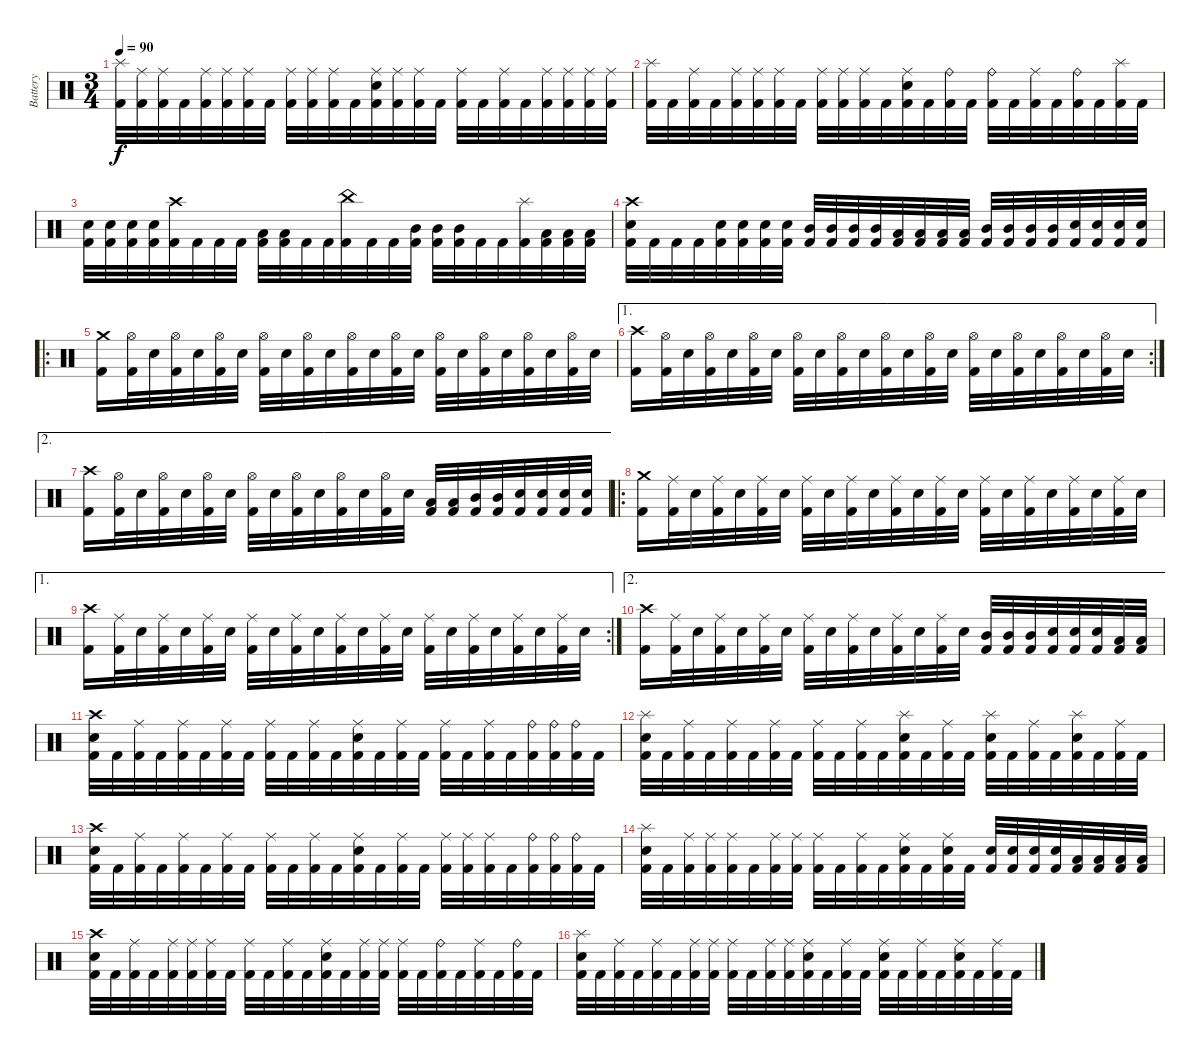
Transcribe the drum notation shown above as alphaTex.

\track ("Battery" "Battery") {instrument percussion}
\staff {score}
\articulation defaults
\ts (3 4)
\tempo 90
\clef neutral
\ks c
("Kick (hit) 2" "Splash (hit)").32{dy f} ("Kick (hit) 2" "Ride (middle)").32 ("Kick (hit) 2" "Ride (middle)").32 "Kick (hit) 2".32 ("Kick (hit) 2" "Ride (middle)").32 ("Kick (hit) 2" "Ride (middle)").32 ("Kick (hit) 2" "Ride (middle)").32 "Kick (hit) 2".32 ("Kick (hit) 2" "Ride (middle)").32 ("Kick (hit) 2" "Ride (middle)").32 ("Kick (hit) 2" "Ride (middle)").32 "Kick (hit) 2".32 ("Kick (hit) 2" "Snare (hit) 2" "Ride (middle)").32 ("Kick (hit) 2" "Ride (middle)").32 ("Kick (hit) 2" "Ride (middle)").32 "Kick (hit) 2".32 ("Kick (hit) 2" "Ride (middle)").32 "Kick (hit) 2".32 ("Kick (hit) 2" "Ride (middle)").32 "Kick (hit) 2".32 ("Kick (hit) 2" "Ride (middle)").32 ("Kick (hit) 2" "Ride (middle)").32 ("Kick (hit) 2" "Ride (middle)").32 ("Kick (hit) 2" "Ride (middle)").32 |
("Kick (hit) 2" "Splash (hit)").32 "Kick (hit) 2".32 ("Kick (hit) 2" "Ride (middle)").32 "Kick (hit) 2".32 ("Kick (hit) 2" "Ride (middle)").32 ("Kick (hit) 2" "Ride (middle)").32 ("Kick (hit) 2" "Ride (middle)").32 "Kick (hit) 2".32 ("Kick (hit) 2" "Ride (middle)").32 ("Kick (hit) 2" "Ride (middle)").32 ("Kick (hit) 2" "Ride (middle)").32 "Kick (hit) 2".32 ("Kick (hit) 2" "Snare (hit) 2" "Ride (middle)").32 "Kick (hit) 2".32 ("Kick (hit) 2" "Ride (bell)").32 "Kick (hit) 2".32 ("Kick (hit) 2" "Ride (bell)").32 "Kick (hit) 2".32 ("Kick (hit) 2" "Ride (middle)").32 "Kick (hit) 2".32 ("Kick (hit) 2" "Ride (bell)").32 "Kick (hit) 2".32 ("Kick (hit) 2" "Splash (hit)").32 "Kick (hit) 2".32 |
("Kick (hit) 2" "Snare (hit) 2").32 ("Kick (hit) 2" "Snare (hit) 2").32 ("Kick (hit) 2" "Snare (hit) 2").32 ("Kick (hit) 2" "Snare (hit) 2").32 ("Kick (hit) 2" "Crash high (hit)").32 "Kick (hit) 2".32 "Kick (hit) 2".32 "Kick (hit) 2".32 ("Kick (hit) 2" "Low Tom (hit)").32 ("Kick (hit) 2" "Low Tom (hit)").32 "Kick (hit) 2".32 "Kick (hit) 2".32 ("Kick (hit) 2" "China (hit)").32 "Kick (hit) 2".32 "Kick (hit) 2".32 ("Kick (hit) 2" "Mid Tom (hit)").32 ("Kick (hit) 2" "Mid Tom (hit)").32 ("Kick (hit) 2" "Mid Tom (hit)").32 "Kick (hit) 2".32 "Kick (hit) 2".32 ("Kick (hit) 2" "Splash (hit)").32 ("Kick (hit) 2" "Low Tom (hit)").32 ("Kick (hit) 2" "Low Tom (hit)").32 ("Kick (hit) 2" "Low Tom (hit)").32 |
("Kick (hit) 2" "Snare (hit) 2" "Crash high (hit)").32 "Kick (hit) 2".32 "Kick (hit) 2".32 "Kick (hit) 2".32 ("Kick (hit) 2" "Snare (hit) 2").32 ("Kick (hit) 2" "Snare (hit) 2").32 ("Kick (hit) 2" "Snare (hit) 2").32 ("Kick (hit) 2" "Snare (hit) 2").32 ("Kick (hit) 2" "Mid Tom (hit)").32 ("Kick (hit) 2" "Mid Tom (hit)").32 ("Kick (hit) 2" "Mid Tom (hit)").32 ("Kick (hit) 2" "Mid Tom (hit)").32 ("Kick (hit) 2" "Low Tom (hit)").32 ("Kick (hit) 2" "Low Tom (hit)").32 ("Kick (hit) 2" "Low Tom (hit)").32 ("Kick (hit) 2" "Low Tom (hit)").32 ("Kick (hit) 2" "Mid Tom (hit)").32 ("Kick (hit) 2" "Mid Tom (hit)").32 ("Kick (hit) 2" "Mid Tom (hit)").32 ("Kick (hit) 2" "Mid Tom (hit)").32 ("Kick (hit) 2" "Snare (hit) 2").32 ("Kick (hit) 2" "Snare (hit) 2").32 ("Kick (hit) 2" "Snare (hit) 2").32 ("Kick (hit) 2" "Snare (hit) 2").32 |
\ro
("Kick (hit) 2" "Crash medium (hit)").16 ("Kick (hit) 2" "Hi-Hat (open)").32 "Snare (hit) 2".32 ("Kick (hit) 2" "Hi-Hat (open)").32 "Snare (hit) 2".32 ("Kick (hit) 2" "Hi-Hat (open)").32 "Snare (hit) 2".32 ("Kick (hit) 2" "Hi-Hat (open)").32 "Snare (hit) 2".32 ("Kick (hit) 2" "Hi-Hat (open)").32 "Snare (hit) 2".32 ("Kick (hit) 2" "Hi-Hat (open)").32 "Snare (hit) 2".32 ("Kick (hit) 2" "Hi-Hat (open)").32 "Snare (hit) 2".32 ("Kick (hit) 2" "Hi-Hat (open)").32 "Snare (hit) 2".32 ("Kick (hit) 2" "Hi-Hat (open)").32 "Snare (hit) 2".32 ("Kick (hit) 2" "Hi-Hat (open)").32 "Snare (hit) 2".32 ("Kick (hit) 2" "Hi-Hat (open)").32 "Snare (hit) 2".32 |
\ae 1
\rc 2
("Kick (hit) 2" "Crash high (hit)").16 ("Kick (hit) 2" "Hi-Hat (open)").32 "Snare (hit) 2".32 ("Kick (hit) 2" "Hi-Hat (open)").32 "Snare (hit) 2".32 ("Kick (hit) 2" "Hi-Hat (open)").32 "Snare (hit) 2".32 ("Kick (hit) 2" "Hi-Hat (open)").32 "Snare (hit) 2".32 ("Kick (hit) 2" "Hi-Hat (open)").32 "Snare (hit) 2".32 ("Kick (hit) 2" "Hi-Hat (open)").32 "Snare (hit) 2".32 ("Kick (hit) 2" "Hi-Hat (open)").32 "Snare (hit) 2".32 ("Kick (hit) 2" "Hi-Hat (open)").32 "Snare (hit) 2".32 ("Kick (hit) 2" "Hi-Hat (open)").32 "Snare (hit) 2".32 ("Kick (hit) 2" "Hi-Hat (open)").32 "Snare (hit) 2".32 ("Kick (hit) 2" "Hi-Hat (open)").32 "Snare (hit) 2".32 |
\ae 2
("Kick (hit) 2" "Crash high (hit)").16 ("Kick (hit) 2" "Hi-Hat (open)").32 "Snare (hit) 2".32 ("Kick (hit) 2" "Hi-Hat (open)").32 "Snare (hit) 2".32 ("Kick (hit) 2" "Hi-Hat (open)").32 "Snare (hit) 2".32 ("Kick (hit) 2" "Hi-Hat (open)").32 "Snare (hit) 2".32 ("Kick (hit) 2" "Hi-Hat (open)").32 "Snare (hit) 2".32 ("Kick (hit) 2" "Hi-Hat (open)").32 "Snare (hit) 2".32 ("Kick (hit) 2" "Hi-Hat (open)").32 "Snare (hit) 2".32 ("Kick (hit) 2" "Low Tom (hit)").32 ("Kick (hit) 2" "Low Tom (hit)").32 ("Kick (hit) 2" "Mid Tom (hit)").32 ("Kick (hit) 2" "Mid Tom (hit)").32 ("Kick (hit) 2" "Snare (hit) 2").32 ("Kick (hit) 2" "Snare (hit) 2").32 ("Kick (hit) 2" "Snare (hit) 2").32 ("Kick (hit) 2" "Snare (hit) 2").32 |
\ro
("Kick (hit) 2" "Crash medium (hit)").16 ("Kick (hit) 2" "Ride (middle)").32 "Snare (hit) 2".32 ("Kick (hit) 2" "Ride (middle)").32 "Snare (hit) 2".32 ("Kick (hit) 2" "Ride (middle)").32 "Snare (hit) 2".32 ("Kick (hit) 2" "Ride (middle)").32 "Snare (hit) 2".32 ("Kick (hit) 2" "Ride (middle)").32 "Snare (hit) 2".32 ("Kick (hit) 2" "Ride (middle)").32 "Snare (hit) 2".32 ("Kick (hit) 2" "Ride (middle)").32 "Snare (hit) 2".32 ("Kick (hit) 2" "Ride (middle)").32 "Snare (hit) 2".32 ("Kick (hit) 2" "Ride (middle)").32 "Snare (hit) 2".32 ("Kick (hit) 2" "Ride (middle)").32 "Snare (hit) 2".32 ("Kick (hit) 2" "Ride (middle)").32 "Snare (hit) 2".32 |
\ae 1
\rc 2
("Kick (hit) 2" "Crash high (hit)").16 ("Kick (hit) 2" "Ride (middle)").32 "Snare (hit) 2".32 ("Kick (hit) 2" "Ride (middle)").32 "Snare (hit) 2".32 ("Kick (hit) 2" "Ride (middle)").32 "Snare (hit) 2".32 ("Kick (hit) 2" "Ride (middle)").32 "Snare (hit) 2".32 ("Kick (hit) 2" "Ride (middle)").32 "Snare (hit) 2".32 ("Kick (hit) 2" "Ride (middle)").32 "Snare (hit) 2".32 ("Kick (hit) 2" "Ride (middle)").32 "Snare (hit) 2".32 ("Kick (hit) 2" "Ride (middle)").32 "Snare (hit) 2".32 ("Kick (hit) 2" "Ride (middle)").32 "Snare (hit) 2".32 ("Kick (hit) 2" "Ride (middle)").32 "Snare (hit) 2".32 ("Kick (hit) 2" "Ride (middle)").32 "Snare (hit) 2".32 |
\ae 2
("Kick (hit) 2" "Crash high (hit)").16 ("Kick (hit) 2" "Ride (middle)").32 "Snare (hit) 2".32 ("Kick (hit) 2" "Ride (middle)").32 "Snare (hit) 2".32 ("Kick (hit) 2" "Ride (middle)").32 "Snare (hit) 2".32 ("Kick (hit) 2" "Ride (middle)").32 "Snare (hit) 2".32 ("Kick (hit) 2" "Ride (middle)").32 "Snare (hit) 2".32 ("Kick (hit) 2" "Ride (middle)").32 "Snare (hit) 2".32 ("Kick (hit) 2" "Ride (middle)").32 "Snare (hit) 2".32 ("Kick (hit) 2" "Mid Tom (hit)").32 ("Kick (hit) 2" "Mid Tom (hit)").32 ("Kick (hit) 2" "Mid Tom (hit)").32 ("Kick (hit) 2" "Snare (hit) 2").32 ("Kick (hit) 2" "Snare (hit) 2").32 ("Kick (hit) 2" "Snare (hit) 2").32 ("Kick (hit) 2" "Low Tom (hit)").32 ("Kick (hit) 2" "Low Tom (hit)").32 |
("Kick (hit) 2" "Snare (hit) 2" "Crash high (hit)").32 "Kick (hit) 2".32 ("Kick (hit) 2" "Ride (middle)").32 "Kick (hit) 2".32 ("Kick (hit) 2" "Ride (middle)").32 "Kick (hit) 2".32 ("Kick (hit) 2" "Ride (middle)").32 "Kick (hit) 2".32 ("Kick (hit) 2" "Ride (middle)").32 "Kick (hit) 2".32 ("Kick (hit) 2" "Ride (middle)").32 "Kick (hit) 2".32 ("Kick (hit) 2" "Snare (hit) 2" "Ride (middle)").32 "Kick (hit) 2".32 ("Kick (hit) 2" "Ride (middle)").32 "Kick (hit) 2".32 ("Kick (hit) 2" "Ride (middle)").32 "Kick (hit) 2".32 ("Kick (hit) 2" "Ride (middle)").32 "Kick (hit) 2".32 ("Kick (hit) 2" "Ride (bell)").32 ("Kick (hit) 2" "Ride (bell)").32 ("Kick (hit) 2" "Ride (bell)").32 "Kick (hit) 2".32 |
("Kick (hit) 2" "Snare (hit) 2" "Splash (hit)").32 "Kick (hit) 2".32 ("Kick (hit) 2" "Ride (middle)").32 "Kick (hit) 2".32 ("Kick (hit) 2" "Ride (middle)").32 "Kick (hit) 2".32 ("Kick (hit) 2" "Ride (middle)").32 "Kick (hit) 2".32 ("Kick (hit) 2" "Ride (middle)").32 "Kick (hit) 2".32 ("Kick (hit) 2" "Ride (middle)").32 "Kick (hit) 2".32 ("Kick (hit) 2" "Snare (hit) 2" "Splash (hit)").32 "Kick (hit) 2".32 ("Kick (hit) 2" "Ride (middle)").32 "Kick (hit) 2".32 ("Kick (hit) 2" "Snare (hit) 2" "Splash (hit)").32 "Kick (hit) 2".32 ("Kick (hit) 2" "Ride (middle)").32 "Kick (hit) 2".32 ("Kick (hit) 2" "Snare (hit) 2" "Splash (hit)").32 "Kick (hit) 2".32 ("Kick (hit) 2" "Ride (middle)").32 "Kick (hit) 2".32 |
("Kick (hit) 2" "Snare (hit) 2" "Crash high (hit)").32 "Kick (hit) 2".32 ("Kick (hit) 2" "Ride (middle)").32 "Kick (hit) 2".32 ("Kick (hit) 2" "Ride (middle)").32 "Kick (hit) 2".32 ("Kick (hit) 2" "Ride (middle)").32 "Kick (hit) 2".32 ("Kick (hit) 2" "Ride (middle)").32 "Kick (hit) 2".32 ("Kick (hit) 2" "Ride (middle)").32 "Kick (hit) 2".32 ("Kick (hit) 2" "Snare (hit) 2" "Ride (middle)").32 "Kick (hit) 2".32 ("Kick (hit) 2" "Ride (middle)").32 "Kick (hit) 2".32 ("Kick (hit) 2" "Ride (middle)").32 ("Kick (hit) 2" "Ride (middle)").32 ("Kick (hit) 2" "Ride (middle)").32 "Kick (hit) 2".32 ("Kick (hit) 2" "Ride (bell)").32 ("Kick (hit) 2" "Ride (bell)").32 ("Kick (hit) 2" "Ride (bell)").32 "Kick (hit) 2".32 |
("Kick (hit) 2" "Snare (hit) 2" "Splash (hit)").32 "Kick (hit) 2".32 ("Kick (hit) 2" "Ride (middle)").32 ("Kick (hit) 2" "Ride (middle)").32 ("Kick (hit) 2" "Ride (middle)").32 "Kick (hit) 2".32 ("Kick (hit) 2" "Ride (middle)").32 ("Kick (hit) 2" "Ride (middle)").32 ("Kick (hit) 2" "Ride (middle)").32 "Kick (hit) 2".32 ("Kick (hit) 2" "Ride (middle)").32 "Kick (hit) 2".32 ("Kick (hit) 2" "Snare (hit) 2" "Ride (middle)").32 "Kick (hit) 2".32 ("Kick (hit) 2" "Snare (hit) 2" "Ride (middle)").32 "Kick (hit) 2".32 ("Kick (hit) 2" "Snare (hit) 2").32 ("Kick (hit) 2" "Snare (hit) 2").32 ("Kick (hit) 2" "Snare (hit) 2").32 ("Kick (hit) 2" "Snare (hit) 2").32 ("Kick (hit) 2" "Low Tom (hit)").32 ("Kick (hit) 2" "Low Tom (hit)").32 ("Kick (hit) 2" "Low Tom (hit)").32 ("Kick (hit) 2" "Low Tom (hit)").32 |
("Kick (hit) 2" "Snare (hit) 2" "Crash high (hit)").32 "Kick (hit) 2".32 ("Kick (hit) 2" "Ride (middle)").32 "Kick (hit) 2".32 ("Kick (hit) 2" "Ride (middle)").32 ("Kick (hit) 2" "Ride (middle)").32 ("Kick (hit) 2" "Ride (middle)").32 "Kick (hit) 2".32 ("Kick (hit) 2" "Ride (middle)").32 "Kick (hit) 2".32 ("Kick (hit) 2" "Ride (middle)").32 "Kick (hit) 2".32 ("Kick (hit) 2" "Snare (hit) 2" "Ride (middle)").32 "Kick (hit) 2".32 ("Kick (hit) 2" "Ride (middle)").32 ("Kick (hit) 2" "Ride (middle)").32 ("Kick (hit) 2" "Ride (middle)").32 "Kick (hit) 2".32 ("Kick (hit) 2" "Ride (bell)").32 "Kick (hit) 2".32 ("Kick (hit) 2" "Ride (middle)").32 "Kick (hit) 2".32 ("Kick (hit) 2" "Ride (bell)").32 "Kick (hit) 2".32 |
("Kick (hit) 2" "Snare (hit) 2" "Splash (hit)").32 "Kick (hit) 2".32 ("Kick (hit) 2" "Ride (middle)").32 "Kick (hit) 2".32 ("Kick (hit) 2" "Ride (middle)").32 "Kick (hit) 2".32 ("Kick (hit) 2" "Ride (middle)").32 ("Kick (hit) 2" "Ride (middle)").32 ("Kick (hit) 2" "Ride (middle)").32 "Kick (hit) 2".32 ("Kick (hit) 2" "Ride (middle)").32 ("Kick (hit) 2" "Ride (middle)").32 ("Kick (hit) 2" "Snare (hit) 2" "Ride (middle)").32 "Kick (hit) 2".32 ("Kick (hit) 2" "Ride (middle)").32 "Kick (hit) 2".32 ("Kick (hit) 2" "Snare (hit) 2" "Ride (middle)").32 "Kick (hit) 2".32 ("Kick (hit) 2" "Ride (middle)").32 "Kick (hit) 2".32 ("Kick (hit) 2" "Snare (hit) 2" "Ride (middle)").32 "Kick (hit) 2".32 ("Kick (hit) 2" "Ride (middle)").32 "Kick (hit) 2".32
